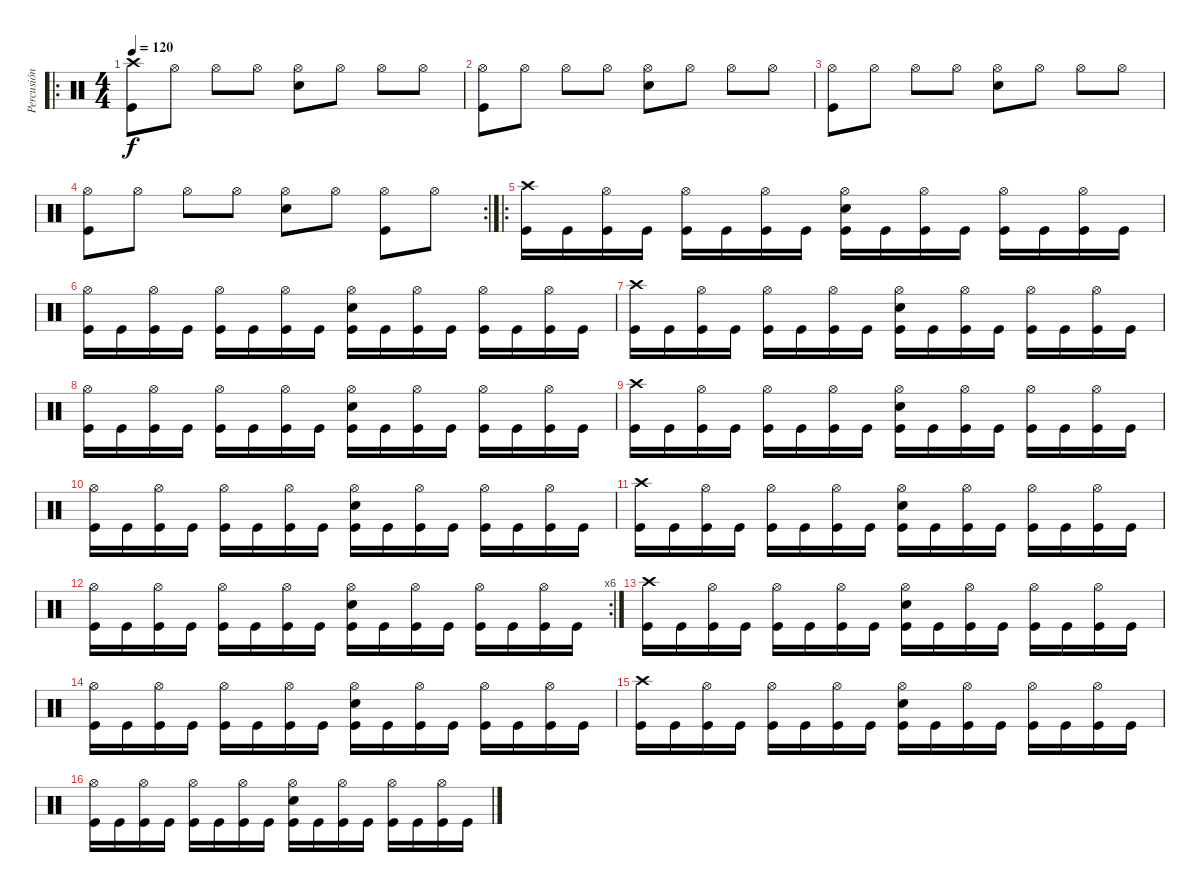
\track ("Percusión" "Percusión") {instrument percussion}
\staff {score}
\articulation defaults
\ro
\ts (4 4)
\tempo 120
\clef neutral
\ks c
("Kick (hit)" "Crash high (hit)").8{dy f} "Hi-Hat (open)".8 "Hi-Hat (open)".8 "Hi-Hat (open)".8 ("Hi-Hat (open)" "Electric Snare (hit)").8 "Hi-Hat (open)".8 "Hi-Hat (open)".8 "Hi-Hat (open)".8 |
("Hi-Hat (open)" "Kick (hit)").8 "Hi-Hat (open)".8 "Hi-Hat (open)".8 "Hi-Hat (open)".8 ("Hi-Hat (open)" "Electric Snare (hit)").8 "Hi-Hat (open)".8 "Hi-Hat (open)".8 "Hi-Hat (open)".8 |
("Hi-Hat (open)" "Kick (hit)").8 "Hi-Hat (open)".8 "Hi-Hat (open)".8 "Hi-Hat (open)".8 ("Hi-Hat (open)" "Electric Snare (hit)").8 "Hi-Hat (open)".8 "Hi-Hat (open)".8 "Hi-Hat (open)".8 |
\rc 2
("Hi-Hat (open)" "Kick (hit)").8 "Hi-Hat (open)".8 "Hi-Hat (open)".8 "Hi-Hat (open)".8 ("Hi-Hat (open)" "Electric Snare (hit)").8 "Hi-Hat (open)".8 ("Hi-Hat (open)" "Kick (hit)").8 "Hi-Hat (open)".8 |
\ro
("Crash high (hit)" "Kick (hit)").16 "Kick (hit)".16 ("Kick (hit)" "Hi-Hat (open)").16 "Kick (hit)".16 ("Kick (hit)" "Hi-Hat (open)").16 "Kick (hit)".16 ("Kick (hit)" "Hi-Hat (open)").16 "Kick (hit)".16 ("Electric Snare (hit)" "Kick (hit)" "Hi-Hat (open)").16 "Kick (hit)".16 ("Kick (hit)" "Hi-Hat (open)").16 "Kick (hit)".16 ("Kick (hit)" "Hi-Hat (open)").16 "Kick (hit)".16 ("Kick (hit)" "Hi-Hat (open)").16 "Kick (hit)".16 |
("Hi-Hat (open)" "Kick (hit)").16 "Kick (hit)".16 ("Kick (hit)" "Hi-Hat (open)").16 "Kick (hit)".16 ("Kick (hit)" "Hi-Hat (open)").16 "Kick (hit)".16 ("Kick (hit)" "Hi-Hat (open)").16 "Kick (hit)".16 ("Electric Snare (hit)" "Kick (hit)" "Hi-Hat (open)").16 "Kick (hit)".16 ("Kick (hit)" "Hi-Hat (open)").16 "Kick (hit)".16 ("Kick (hit)" "Hi-Hat (open)").16 "Kick (hit)".16 ("Kick (hit)" "Hi-Hat (open)").16 "Kick (hit)".16 |
("Crash high (hit)" "Kick (hit)").16 "Kick (hit)".16 ("Kick (hit)" "Hi-Hat (open)").16 "Kick (hit)".16 ("Kick (hit)" "Hi-Hat (open)").16 "Kick (hit)".16 ("Kick (hit)" "Hi-Hat (open)").16 "Kick (hit)".16 ("Electric Snare (hit)" "Kick (hit)" "Hi-Hat (open)").16 "Kick (hit)".16 ("Kick (hit)" "Hi-Hat (open)").16 "Kick (hit)".16 ("Kick (hit)" "Hi-Hat (open)").16 "Kick (hit)".16 ("Kick (hit)" "Hi-Hat (open)").16 "Kick (hit)".16 |
("Hi-Hat (open)" "Kick (hit)").16 "Kick (hit)".16 ("Kick (hit)" "Hi-Hat (open)").16 "Kick (hit)".16 ("Kick (hit)" "Hi-Hat (open)").16 "Kick (hit)".16 ("Kick (hit)" "Hi-Hat (open)").16 "Kick (hit)".16 ("Electric Snare (hit)" "Kick (hit)" "Hi-Hat (open)").16 "Kick (hit)".16 ("Kick (hit)" "Hi-Hat (open)").16 "Kick (hit)".16 ("Kick (hit)" "Hi-Hat (open)").16 "Kick (hit)".16 ("Kick (hit)" "Hi-Hat (open)").16 "Kick (hit)".16 |
("Crash high (hit)" "Kick (hit)").16 "Kick (hit)".16 ("Kick (hit)" "Hi-Hat (open)").16 "Kick (hit)".16 ("Kick (hit)" "Hi-Hat (open)").16 "Kick (hit)".16 ("Kick (hit)" "Hi-Hat (open)").16 "Kick (hit)".16 ("Electric Snare (hit)" "Kick (hit)" "Hi-Hat (open)").16 "Kick (hit)".16 ("Kick (hit)" "Hi-Hat (open)").16 "Kick (hit)".16 ("Kick (hit)" "Hi-Hat (open)").16 "Kick (hit)".16 ("Kick (hit)" "Hi-Hat (open)").16 "Kick (hit)".16 |
("Hi-Hat (open)" "Kick (hit)").16 "Kick (hit)".16 ("Kick (hit)" "Hi-Hat (open)").16 "Kick (hit)".16 ("Kick (hit)" "Hi-Hat (open)").16 "Kick (hit)".16 ("Kick (hit)" "Hi-Hat (open)").16 "Kick (hit)".16 ("Electric Snare (hit)" "Kick (hit)" "Hi-Hat (open)").16 "Kick (hit)".16 ("Kick (hit)" "Hi-Hat (open)").16 "Kick (hit)".16 ("Kick (hit)" "Hi-Hat (open)").16 "Kick (hit)".16 ("Kick (hit)" "Hi-Hat (open)").16 "Kick (hit)".16 |
("Crash high (hit)" "Kick (hit)").16 "Kick (hit)".16 ("Kick (hit)" "Hi-Hat (open)").16 "Kick (hit)".16 ("Kick (hit)" "Hi-Hat (open)").16 "Kick (hit)".16 ("Kick (hit)" "Hi-Hat (open)").16 "Kick (hit)".16 ("Electric Snare (hit)" "Kick (hit)" "Hi-Hat (open)").16 "Kick (hit)".16 ("Kick (hit)" "Hi-Hat (open)").16 "Kick (hit)".16 ("Kick (hit)" "Hi-Hat (open)").16 "Kick (hit)".16 ("Kick (hit)" "Hi-Hat (open)").16 "Kick (hit)".16 |
\rc 6
("Hi-Hat (open)" "Kick (hit)").16 "Kick (hit)".16 ("Kick (hit)" "Hi-Hat (open)").16 "Kick (hit)".16 ("Kick (hit)" "Hi-Hat (open)").16 "Kick (hit)".16 ("Kick (hit)" "Hi-Hat (open)").16 "Kick (hit)".16 ("Electric Snare (hit)" "Kick (hit)" "Hi-Hat (open)").16 "Kick (hit)".16 ("Kick (hit)" "Hi-Hat (open)").16 "Kick (hit)".16 ("Kick (hit)" "Hi-Hat (open)").16 "Kick (hit)".16 ("Kick (hit)" "Hi-Hat (open)").16 "Kick (hit)".16 |
("Crash high (hit)" "Kick (hit)").16 "Kick (hit)".16 ("Kick (hit)" "Hi-Hat (open)").16 "Kick (hit)".16 ("Kick (hit)" "Hi-Hat (open)").16 "Kick (hit)".16 ("Kick (hit)" "Hi-Hat (open)").16 "Kick (hit)".16 ("Electric Snare (hit)" "Kick (hit)" "Hi-Hat (open)").16 "Kick (hit)".16 ("Kick (hit)" "Hi-Hat (open)").16 "Kick (hit)".16 ("Kick (hit)" "Hi-Hat (open)").16 "Kick (hit)".16 ("Kick (hit)" "Hi-Hat (open)").16 "Kick (hit)".16 |
("Hi-Hat (open)" "Kick (hit)").16 "Kick (hit)".16 ("Kick (hit)" "Hi-Hat (open)").16 "Kick (hit)".16 ("Kick (hit)" "Hi-Hat (open)").16 "Kick (hit)".16 ("Kick (hit)" "Hi-Hat (open)").16 "Kick (hit)".16 ("Electric Snare (hit)" "Kick (hit)" "Hi-Hat (open)").16 "Kick (hit)".16 ("Kick (hit)" "Hi-Hat (open)").16 "Kick (hit)".16 ("Kick (hit)" "Hi-Hat (open)").16 "Kick (hit)".16 ("Kick (hit)" "Hi-Hat (open)").16 "Kick (hit)".16 |
("Crash high (hit)" "Kick (hit)").16 "Kick (hit)".16 ("Kick (hit)" "Hi-Hat (open)").16 "Kick (hit)".16 ("Kick (hit)" "Hi-Hat (open)").16 "Kick (hit)".16 ("Kick (hit)" "Hi-Hat (open)").16 "Kick (hit)".16 ("Electric Snare (hit)" "Kick (hit)" "Hi-Hat (open)").16 "Kick (hit)".16 ("Kick (hit)" "Hi-Hat (open)").16 "Kick (hit)".16 ("Kick (hit)" "Hi-Hat (open)").16 "Kick (hit)".16 ("Kick (hit)" "Hi-Hat (open)").16 "Kick (hit)".16 |
("Hi-Hat (open)" "Kick (hit)").16 "Kick (hit)".16 ("Kick (hit)" "Hi-Hat (open)").16 "Kick (hit)".16 ("Kick (hit)" "Hi-Hat (open)").16 "Kick (hit)".16 ("Kick (hit)" "Hi-Hat (open)").16 "Kick (hit)".16 ("Electric Snare (hit)" "Kick (hit)" "Hi-Hat (open)").16 "Kick (hit)".16 ("Kick (hit)" "Hi-Hat (open)").16 "Kick (hit)".16 ("Kick (hit)" "Hi-Hat (open)").16 "Kick (hit)".16 ("Kick (hit)" "Hi-Hat (open)").16 "Kick (hit)".16
